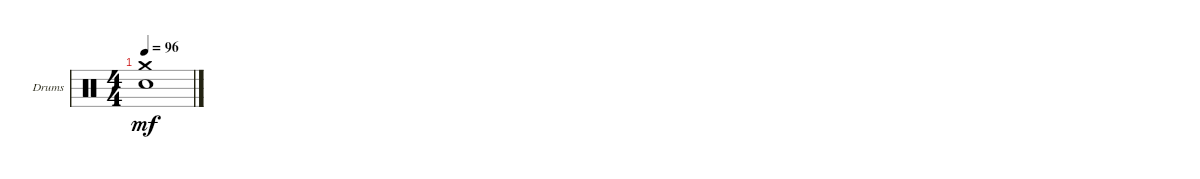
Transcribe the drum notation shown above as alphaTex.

\bracketExtendMode groupsimilarinstruments
\firstSystemTrackNameOrientation horizontal
\otherSystemsTrackNameOrientation horizontal
\track ("Drums" "Drums") {instrument percussion}
\staff {score}
\articulation defaults
\ts (4 4)
\tempo 96
\clef neutral
\ks c
("Snare (hit) 2"{t} "Crash medium (hit)"{t}).1{dy mf}
